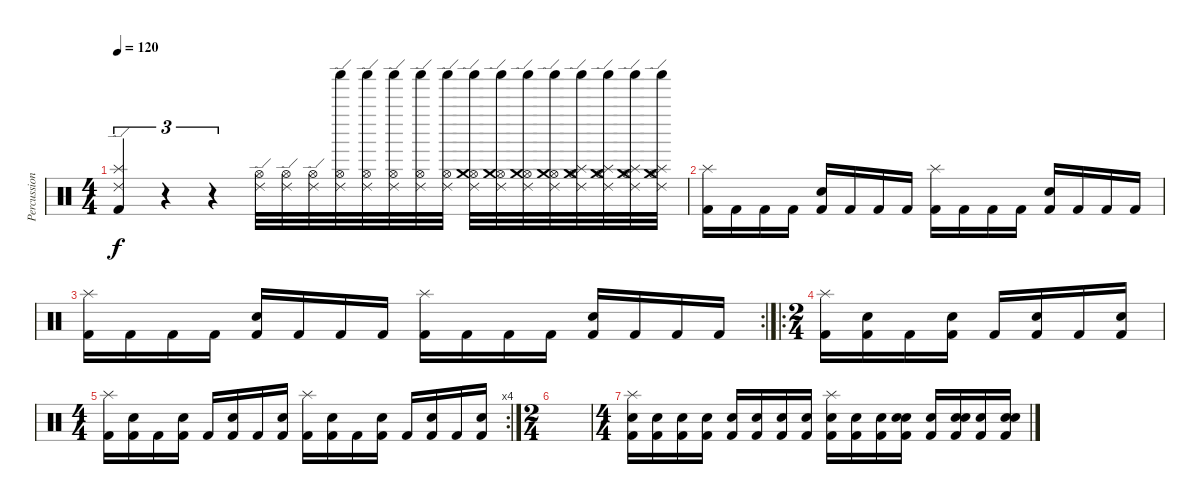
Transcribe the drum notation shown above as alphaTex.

\track ("Percussion" "Percussion") {instrument percussion}
\staff {score}
\articulation defaults
\ts (4 4)
\tempo 120
\clef neutral
\ks c
("Ride (edge) 2" "Splash (hit)" "Kick (hit) 2").4{tu (3 2) dy f} r.4{tu (3 2)} r.4{tu (3 2)} ("Hi-Hat (open)" "Ride (edge) 2").32 ("Hi-Hat (open)" "Ride (edge) 2").32 ("Hi-Hat (open)" "Ride (edge) 2").32 ("Shaker (hit)" "Hi-Hat (open)" "Ride (edge) 2").32 ("Shaker (hit)" "Hi-Hat (open)" "Ride (edge) 2").32 ("Shaker (hit)" "Hi-Hat (open)" "Ride (edge) 2").32 ("Shaker (hit)" "Hi-Hat (open)" "Ride (edge) 2").32 ("Shaker (hit)" "Hi-Hat (open)" "Ride (edge) 2").32 ("Shaker (hit)" "Hi-Hat (open)" "Ride (edge) 2" "Crash medium (hit)").32 ("Shaker (hit)" "Hi-Hat (open)" "Ride (edge) 2" "Crash medium (hit)").32 ("Shaker (hit)" "Hi-Hat (open)" "Ride (edge) 2" "Crash medium (hit)").32 ("Shaker (hit)" "Hi-Hat (open)" "Ride (edge) 2" "Crash medium (hit)").32 ("Shaker (hit)" "Hi-Hat (open)" "Ride (edge) 2" "Crash medium (hit)" "Splash (hit)").32 ("Shaker (hit)" "Hi-Hat (open)" "Ride (edge) 2" "Crash medium (hit)" "Splash (hit)").32 ("Shaker (hit)" "Hi-Hat (open)" "Ride (edge) 2" "Crash medium (hit)" "Splash (hit)").32 ("Shaker (hit)" "Hi-Hat (open)" "Ride (edge) 2" "Crash medium (hit)" "Splash (hit)").32 |
("Kick (hit) 2" "Splash (hit)").16 "Kick (hit) 2".16 "Kick (hit) 2".16 "Kick (hit) 2".16 ("Kick (hit) 2" "Snare (hit) 2").16 "Kick (hit) 2".16 "Kick (hit) 2".16 "Kick (hit) 2".16 ("Kick (hit) 2" "Splash (hit)").16 "Kick (hit) 2".16 "Kick (hit) 2".16 "Kick (hit) 2".16 ("Kick (hit) 2" "Snare (hit) 2").16 "Kick (hit) 2".16 "Kick (hit) 2".16 "Kick (hit) 2".16 |
\rc 2
("Kick (hit) 2" "Splash (hit)").16 "Kick (hit) 2".16 "Kick (hit) 2".16 "Kick (hit) 2".16 ("Kick (hit) 2" "Snare (hit) 2").16 "Kick (hit) 2".16 "Kick (hit) 2".16 "Kick (hit) 2".16 ("Kick (hit) 2" "Splash (hit)").16 "Kick (hit) 2".16 "Kick (hit) 2".16 "Kick (hit) 2".16 ("Kick (hit) 2" "Snare (hit) 2").16 "Kick (hit) 2".16 "Kick (hit) 2".16 "Kick (hit) 2".16 |
\ro
\ts (2 4)
("Kick (hit) 2" "Splash (hit)").16 ("Kick (hit) 2" "Snare (hit) 2").16 "Kick (hit) 2".16 ("Kick (hit) 2" "Snare (hit) 2").16 "Kick (hit) 2".16 ("Kick (hit) 2" "Snare (hit) 2").16 "Kick (hit) 2".16 ("Kick (hit) 2" "Snare (hit) 2").16 |
\rc 4
\ts (4 4)
("Kick (hit) 2" "Splash (hit)").16 ("Kick (hit) 2" "Snare (hit) 2").16 "Kick (hit) 2".16 ("Kick (hit) 2" "Snare (hit) 2").16 "Kick (hit) 2".16 ("Kick (hit) 2" "Snare (hit) 2").16 "Kick (hit) 2".16 ("Kick (hit) 2" "Snare (hit) 2").16 ("Kick (hit) 2" "Splash (hit)").16 ("Kick (hit) 2" "Snare (hit) 2").16 "Kick (hit) 2".16 ("Kick (hit) 2" "Snare (hit) 2").16 "Kick (hit) 2".16 ("Kick (hit) 2" "Snare (hit) 2").16 "Kick (hit) 2".16 ("Kick (hit) 2" "Snare (hit) 2").16 |
\ts (2 4)
|
\ts (4 4)
("Kick (hit) 2" "Snare (hit) 2" "Splash (hit)").16 ("Kick (hit) 2" "Snare (hit) 2").16 ("Kick (hit) 2" "Snare (hit) 2").16 ("Kick (hit) 2" "Snare (hit) 2").16 ("Kick (hit) 2" "Snare (hit) 2").16 ("Kick (hit) 2" "Snare (hit) 2").16 ("Kick (hit) 2" "Snare (hit) 2").16 ("Kick (hit) 2" "Snare (hit) 2").16 ("Kick (hit) 2" "Snare (hit) 2" "Splash (hit)").16 ("Kick (hit) 2" "Snare (hit) 2").16 ("Kick (hit) 2" "Snare (hit) 2").16 ("Kick (hit) 2" "Snare (hit) 2" "Snare (hit) 2").16 ("Kick (hit) 2" "Snare (hit) 2").16 ("Kick (hit) 2" "Snare (hit) 2" "Snare (hit) 2").16 ("Kick (hit) 2" "Snare (hit) 2").16 ("Kick (hit) 2" "Snare (hit) 2" "Snare (hit) 2").16
